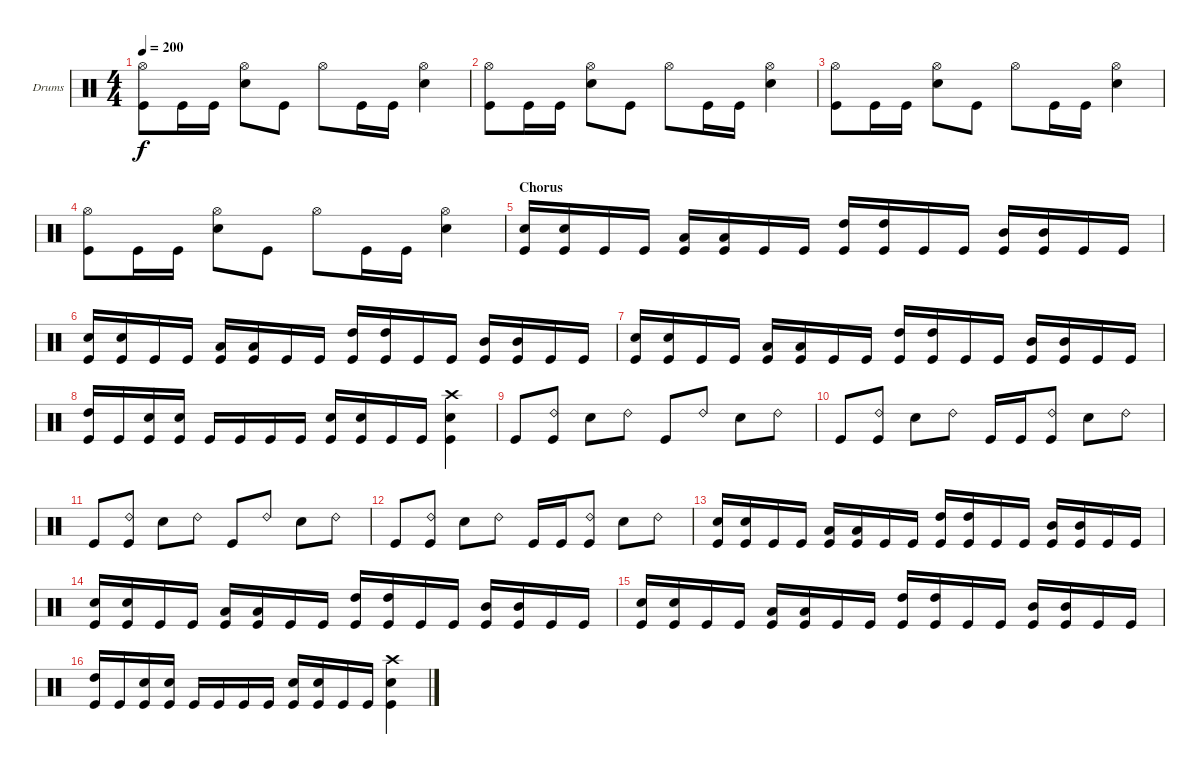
\bracketExtendMode groupsimilarinstruments
\firstSystemTrackNameOrientation horizontal
\otherSystemsTrackNameOrientation horizontal
\track ("Drumkit" "Drums") {multiBarRest instrument percussion}
\staff {score}
\articulation defaults
\ts (4 4)
\tempo 200
\clef neutral
\ks c
("Hi-Hat (open)" "Kick (hit)").8{dy f} "Kick (hit)".16 "Kick (hit)".16 ("Hi-Hat (open)" "Snare (hit) 2").8 "Kick (hit)".8 "Hi-Hat (open)".8 "Kick (hit)".16 "Kick (hit)".16 ("Hi-Hat (open)" "Snare (hit) 2").4 |
("Hi-Hat (open)" "Kick (hit)").8 "Kick (hit)".16 "Kick (hit)".16 ("Hi-Hat (open)" "Snare (hit) 2").8 "Kick (hit)".8 "Hi-Hat (open)".8 "Kick (hit)".16 "Kick (hit)".16 ("Hi-Hat (open)" "Snare (hit) 2").4 |
("Hi-Hat (open)" "Kick (hit)").8 "Kick (hit)".16 "Kick (hit)".16 ("Hi-Hat (open)" "Snare (hit) 2").8 "Kick (hit)".8 "Hi-Hat (open)".8 "Kick (hit)".16 "Kick (hit)".16 ("Hi-Hat (open)" "Snare (hit) 2").4 |
("Hi-Hat (open)" "Kick (hit)").8 "Kick (hit)".16 "Kick (hit)".16 ("Hi-Hat (open)" "Snare (hit) 2").8 "Kick (hit)".8 "Hi-Hat (open)".8 "Kick (hit)".16 "Kick (hit)".16 ("Hi-Hat (open)" "Snare (hit) 2").4 |
\section ("" "Chorus")
("Snare (hit) 2" "Kick (hit)").16 ("Snare (hit) 2" "Kick (hit)").16 "Kick (hit)".16 "Kick (hit)".16 ("Low Tom (hit)" "Kick (hit)").16 ("Low Tom (hit)" "Kick (hit)").16 "Kick (hit)".16 "Kick (hit)".16 ("High Tom (hit)" "Kick (hit)").16 ("High Tom (hit)" "Kick (hit)").16 "Kick (hit)".16 "Kick (hit)".16 ("Mid Tom (hit)" "Kick (hit)").16 ("Mid Tom (hit)" "Kick (hit)").16 "Kick (hit)".16 "Kick (hit)".16 |
("Snare (hit) 2" "Kick (hit)").16 ("Snare (hit) 2" "Kick (hit)").16 "Kick (hit)".16 "Kick (hit)".16 ("Low Tom (hit)" "Kick (hit)").16 ("Low Tom (hit)" "Kick (hit)").16 "Kick (hit)".16 "Kick (hit)".16 ("High Tom (hit)" "Kick (hit)").16 ("High Tom (hit)" "Kick (hit)").16 "Kick (hit)".16 "Kick (hit)".16 ("Mid Tom (hit)" "Kick (hit)").16 ("Mid Tom (hit)" "Kick (hit)").16 "Kick (hit)".16 "Kick (hit)".16 |
("Snare (hit) 2" "Kick (hit)").16 ("Snare (hit) 2" "Kick (hit)").16 "Kick (hit)".16 "Kick (hit)".16 ("Low Tom (hit)" "Kick (hit)").16 ("Low Tom (hit)" "Kick (hit)").16 "Kick (hit)".16 "Kick (hit)".16 ("High Tom (hit)" "Kick (hit)").16 ("High Tom (hit)" "Kick (hit)").16 "Kick (hit)".16 "Kick (hit)".16 ("Mid Tom (hit)" "Kick (hit)").16 ("Mid Tom (hit)" "Kick (hit)").16 "Kick (hit)".16 "Kick (hit)".16 |
("High Tom (hit)" "Kick (hit)").16 "Kick (hit)".16 ("Snare (hit) 2" "Kick (hit)").16 ("Snare (hit) 2" "Kick (hit)").16 "Kick (hit)".16 "Kick (hit)".16 "Kick (hit)".16 "Kick (hit)".16 ("Snare (hit) 2" "Kick (hit)").16 ("Snare (hit) 2" "Kick (hit)").16 "Kick (hit)".16 "Kick (hit)".16 ("Crash high (hit)" "Snare (hit) 2" "Kick (hit)").4 |
"Kick (hit)".8 ("Ride (bell) 2" "Kick (hit)").8 "Snare (hit) 2".8 "Ride (bell) 2".8 "Kick (hit)".8 "Ride (bell) 2".8 "Snare (hit) 2".8 "Ride (bell) 2".8 |
"Kick (hit)".8 ("Ride (bell) 2" "Kick (hit)").8 "Snare (hit) 2".8 "Ride (bell) 2".8 "Kick (hit)".16 "Kick (hit)".16 ("Ride (bell) 2" "Kick (hit)").8 "Snare (hit) 2".8 "Ride (bell) 2".8 |
"Kick (hit)".8 ("Ride (bell) 2" "Kick (hit)").8 "Snare (hit) 2".8 "Ride (bell) 2".8 "Kick (hit)".8 "Ride (bell) 2".8 "Snare (hit) 2".8 "Ride (bell) 2".8 |
"Kick (hit)".8 ("Ride (bell) 2" "Kick (hit)").8 "Snare (hit) 2".8 "Ride (bell) 2".8 "Kick (hit)".16 "Kick (hit)".16 ("Ride (bell) 2" "Kick (hit)").8 "Snare (hit) 2".8 "Ride (bell) 2".8 |
("Snare (hit) 2" "Kick (hit)").16 ("Snare (hit) 2" "Kick (hit)").16 "Kick (hit)".16 "Kick (hit)".16 ("Low Tom (hit)" "Kick (hit)").16 ("Low Tom (hit)" "Kick (hit)").16 "Kick (hit)".16 "Kick (hit)".16 ("High Tom (hit)" "Kick (hit)").16 ("High Tom (hit)" "Kick (hit)").16 "Kick (hit)".16 "Kick (hit)".16 ("Mid Tom (hit)" "Kick (hit)").16 ("Mid Tom (hit)" "Kick (hit)").16 "Kick (hit)".16 "Kick (hit)".16 |
("Snare (hit) 2" "Kick (hit)").16 ("Snare (hit) 2" "Kick (hit)").16 "Kick (hit)".16 "Kick (hit)".16 ("Low Tom (hit)" "Kick (hit)").16 ("Low Tom (hit)" "Kick (hit)").16 "Kick (hit)".16 "Kick (hit)".16 ("High Tom (hit)" "Kick (hit)").16 ("High Tom (hit)" "Kick (hit)").16 "Kick (hit)".16 "Kick (hit)".16 ("Mid Tom (hit)" "Kick (hit)").16 ("Mid Tom (hit)" "Kick (hit)").16 "Kick (hit)".16 "Kick (hit)".16 |
("Snare (hit) 2" "Kick (hit)").16 ("Snare (hit) 2" "Kick (hit)").16 "Kick (hit)".16 "Kick (hit)".16 ("Low Tom (hit)" "Kick (hit)").16 ("Low Tom (hit)" "Kick (hit)").16 "Kick (hit)".16 "Kick (hit)".16 ("High Tom (hit)" "Kick (hit)").16 ("High Tom (hit)" "Kick (hit)").16 "Kick (hit)".16 "Kick (hit)".16 ("Mid Tom (hit)" "Kick (hit)").16 ("Mid Tom (hit)" "Kick (hit)").16 "Kick (hit)".16 "Kick (hit)".16 |
("High Tom (hit)" "Kick (hit)").16 "Kick (hit)".16 ("Snare (hit) 2" "Kick (hit)").16 ("Snare (hit) 2" "Kick (hit)").16 "Kick (hit)".16 "Kick (hit)".16 "Kick (hit)".16 "Kick (hit)".16 ("Snare (hit) 2" "Kick (hit)").16 ("Snare (hit) 2" "Kick (hit)").16 "Kick (hit)".16 "Kick (hit)".16 ("Crash high (hit)" "Snare (hit) 2" "Kick (hit)").4
